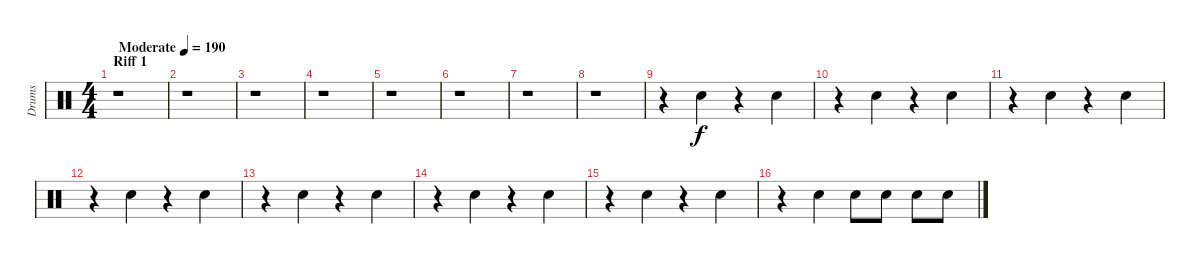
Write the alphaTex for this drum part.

\track ("Drums" "Drums") {instrument percussion}
\staff {score}
\articulation defaults
\ts (4 4)
\section ("" "Riff 1")
\tempo (190 "Moderate")
\clef neutral
\ks c
r.1{dy f} |
r.1 |
r.1 |
r.1 |
r.1 |
r.1 |
r.1 |
r.1 |
r.4 "Electric Snare (hit)".4 r.4 "Electric Snare (hit)".4 |
r.4 "Electric Snare (hit)".4 r.4 "Electric Snare (hit)".4 |
r.4 "Electric Snare (hit)".4 r.4 "Electric Snare (hit)".4 |
r.4 "Electric Snare (hit)".4 r.4 "Electric Snare (hit)".4 |
r.4 "Electric Snare (hit)".4 r.4 "Electric Snare (hit)".4 |
r.4 "Electric Snare (hit)".4 r.4 "Electric Snare (hit)".4 |
r.4 "Electric Snare (hit)".4 r.4 "Electric Snare (hit)".4 |
r.4 "Electric Snare (hit)".4 "Electric Snare (hit)".8 "Electric Snare (hit)".8 "Electric Snare (hit)".8 "Electric Snare (hit)".8
